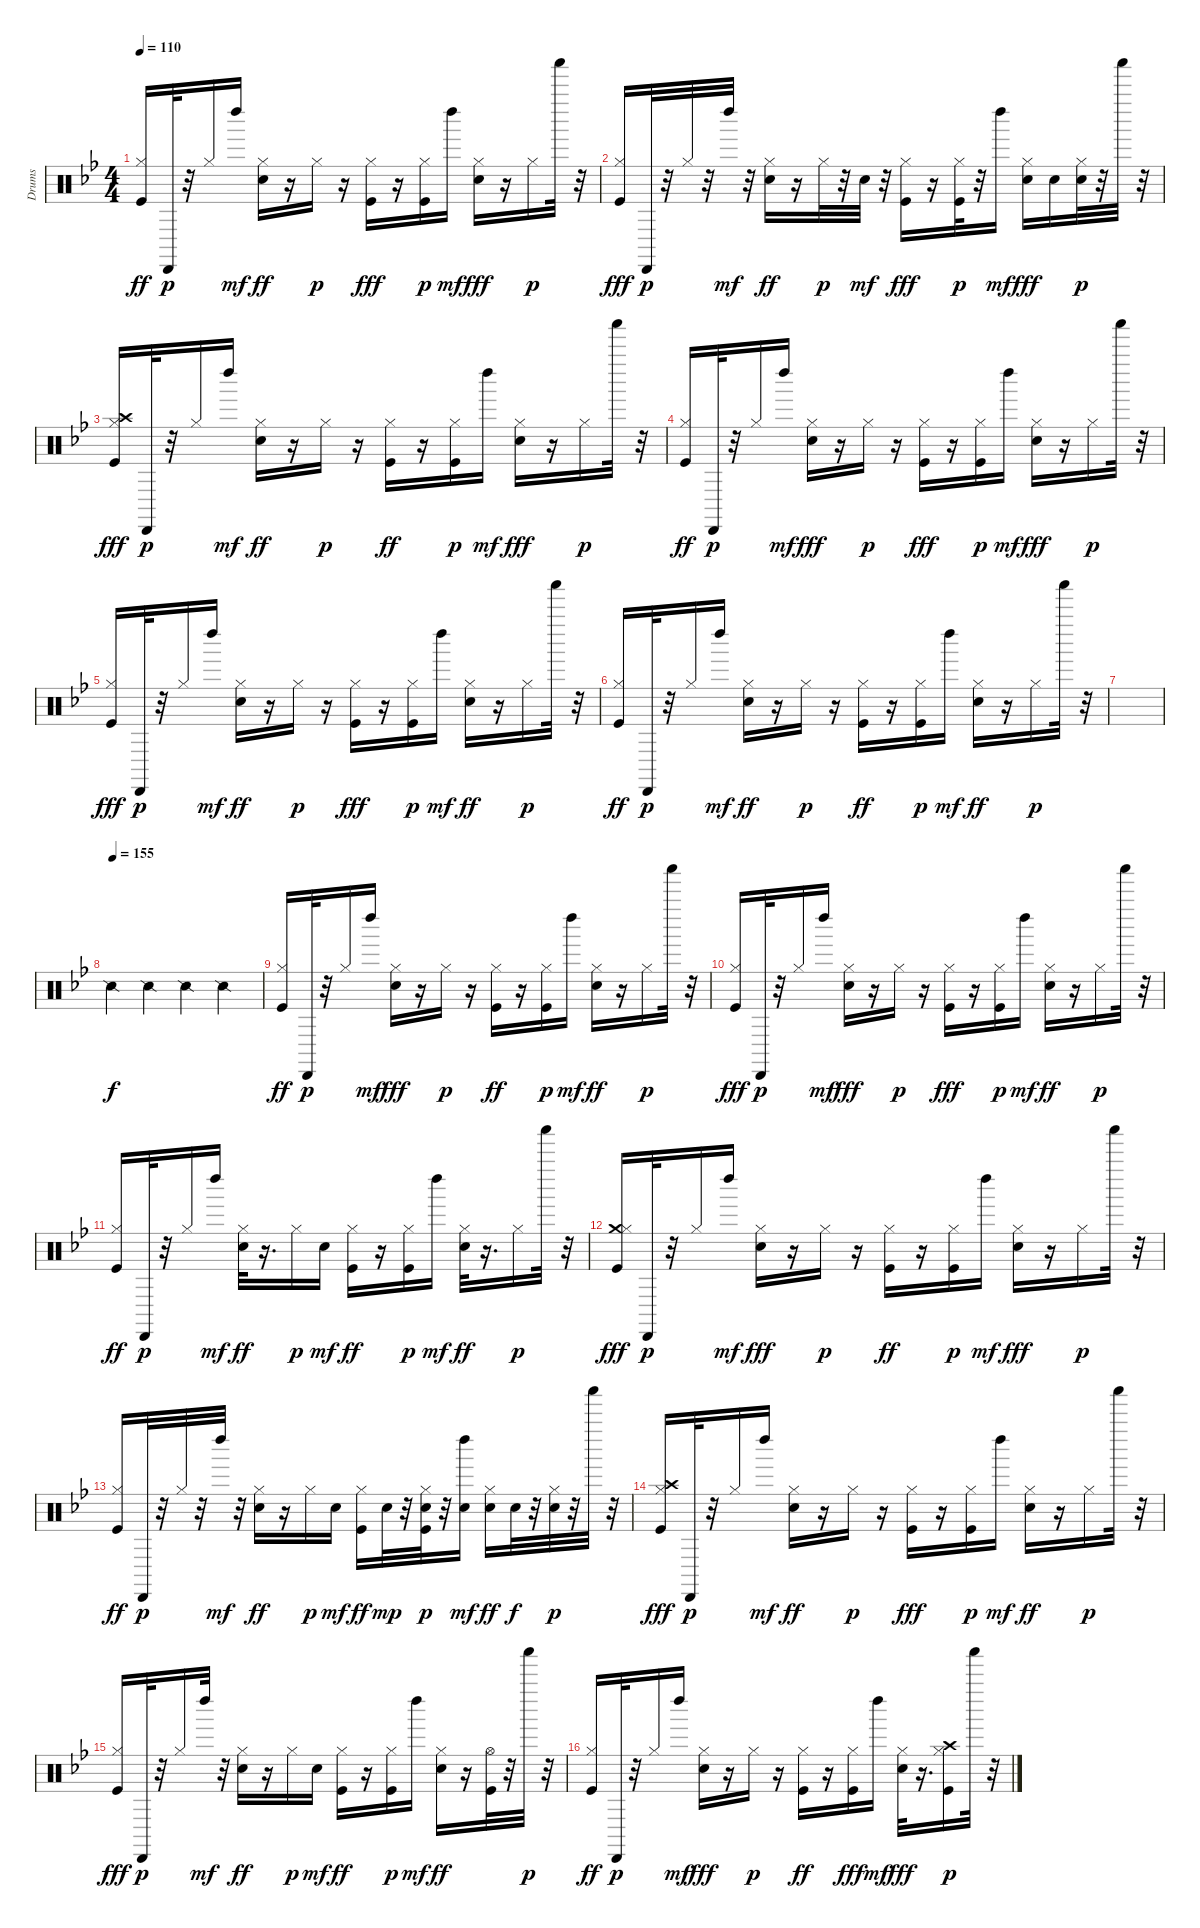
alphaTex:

\track ("Drums" "Drums") {instrument percussion}
\staff {score}
\articulation defaults
\ts (4 4)
\tempo 110
\clef neutral
\ks bb
("Kick (hit)" "Hi-Hat (closed)").16{dy ff} "Cabasa (hit)".32{dy p} r.32 "Hi-Hat (closed)".16 "Left Maraca (hit)".16{dy mf} ("Electric Snare (hit)" "Hi-Hat (closed)").16{dy ff} r.16 "Hi-Hat (closed)".16{dy p} r.16 ("Hi-Hat (closed)" "Kick (hit)").16{dy fff} r.16 ("Kick (hit)" "Hi-Hat (closed)").16{dy p} "Left Maraca (hit)".16{dy mf} ("Hi-Hat (closed)" "Electric Snare (hit)").16{dy fff} r.16 "Hi-Hat (closed)".16{dy p} "Shaker (hit)".32 r.32 |
("Hi-Hat (closed)" "Kick (hit)").16{dy fff} "Cabasa (hit)".32{dy p} r.32 "Hi-Hat (closed)".32 r.32 "Left Maraca (hit)".32{dy mf} r.32 ("Electric Snare (hit)" "Hi-Hat (closed)").16{dy ff} r.16 "Hi-Hat (closed)".32{dy p} r.32 "Electric Snare (hit)".32{dy mf} r.32 ("Hi-Hat (closed)" "Kick (hit)").16{dy fff} r.16 ("Kick (hit)" "Hi-Hat (closed)").32{dy p} r.32 "Left Maraca (hit)".16{dy mf} ("Hi-Hat (closed)" "Electric Snare (hit)").16{dy fff} "Electric Snare (hit)".16 ("Electric Snare (hit)" "Hi-Hat (closed)").32{dy p} r.32 "Shaker (hit)".32 r.32 |
("Crash high (hit)" "Hi-Hat (closed)" "Kick (hit)").16{dy fff} "Cabasa (hit)".32{dy p} r.32 "Hi-Hat (closed)".16 "Left Maraca (hit)".16{dy mf} ("Electric Snare (hit)" "Hi-Hat (closed)").16{dy ff} r.16 "Hi-Hat (closed)".16{dy p} r.16 ("Kick (hit)" "Hi-Hat (closed)").16{dy ff} r.16 ("Kick (hit)" "Hi-Hat (closed)").16{dy p} "Left Maraca (hit)".16{dy mf} ("Hi-Hat (closed)" "Electric Snare (hit)").16{dy fff} r.16 "Hi-Hat (closed)".16{dy p} "Shaker (hit)".32 r.32 |
("Kick (hit)" "Hi-Hat (closed)").16{dy ff} "Cabasa (hit)".32{dy p} r.32 "Hi-Hat (closed)".16 "Left Maraca (hit)".16{dy mf} ("Hi-Hat (closed)" "Electric Snare (hit)").16{dy fff} r.16 "Hi-Hat (closed)".16{dy p} r.16 ("Hi-Hat (closed)" "Kick (hit)").16{dy fff} r.16 ("Kick (hit)" "Hi-Hat (closed)").16{dy p} "Left Maraca (hit)".16{dy mf} ("Hi-Hat (closed)" "Electric Snare (hit)").16{dy fff} r.16 "Hi-Hat (closed)".16{dy p} "Shaker (hit)".32 r.32 |
("Hi-Hat (closed)" "Kick (hit)").16{dy fff} "Cabasa (hit)".32{dy p} r.32 "Hi-Hat (closed)".16 "Left Maraca (hit)".16{dy mf} ("Electric Snare (hit)" "Hi-Hat (closed)").16{dy ff} r.16 "Hi-Hat (closed)".16{dy p} r.16 ("Hi-Hat (closed)" "Kick (hit)").16{dy fff} r.16 ("Kick (hit)" "Hi-Hat (closed)").16{dy p} "Left Maraca (hit)".16{dy mf} ("Electric Snare (hit)" "Hi-Hat (closed)").16{dy ff} r.16 "Hi-Hat (closed)".16{dy p} "Shaker (hit)".32 r.32 |
("Kick (hit)" "Hi-Hat (closed)").16{dy ff} "Cabasa (hit)".32{dy p} r.32 "Hi-Hat (closed)".16 "Left Maraca (hit)".16{dy mf} ("Electric Snare (hit)" "Hi-Hat (closed)").16{dy ff} r.16 "Hi-Hat (closed)".16{dy p} r.16 ("Kick (hit)" "Hi-Hat (closed)").16{dy ff} r.16 ("Kick (hit)" "Hi-Hat (closed)").16{dy p} "Left Maraca (hit)".16{dy mf} ("Electric Snare (hit)" "Hi-Hat (closed)").16{dy ff} r.16 "Hi-Hat (closed)".16{dy p} "Shaker (hit)".32 r.32 |
|
\tempo (155)
"Snare (side stick) 2".4{dy f} "Snare (side stick) 2".4 "Snare (side stick) 2".4 "Snare (side stick) 2".4 |
("Kick (hit)" "Hi-Hat (closed)").16{dy ff} "Cabasa (hit)".32{dy p} r.32 "Hi-Hat (closed)".16 "Left Maraca (hit)".16{dy mf} ("Hi-Hat (closed)" "Electric Snare (hit)").16{dy fff} r.16 "Hi-Hat (closed)".16{dy p} r.16 ("Kick (hit)" "Hi-Hat (closed)").16{dy ff} r.16 ("Kick (hit)" "Hi-Hat (closed)").16{dy p} "Left Maraca (hit)".16{dy mf} ("Electric Snare (hit)" "Hi-Hat (closed)").16{dy ff} r.16 "Hi-Hat (closed)".16{dy p} "Shaker (hit)".32 r.32 |
("Hi-Hat (closed)" "Kick (hit)").16{dy fff} "Cabasa (hit)".32{dy p} r.32 "Hi-Hat (closed)".16 "Left Maraca (hit)".16{dy mf} ("Hi-Hat (closed)" "Electric Snare (hit)").16{dy fff} r.16 "Hi-Hat (closed)".16{dy p} r.16 ("Hi-Hat (closed)" "Kick (hit)").16{dy fff} r.16 ("Kick (hit)" "Hi-Hat (closed)").16{dy p} "Left Maraca (hit)".16{dy mf} ("Electric Snare (hit)" "Hi-Hat (closed)").16{dy ff} r.16 "Hi-Hat (closed)".16{dy p} "Shaker (hit)".32 r.32 |
("Kick (hit)" "Hi-Hat (closed)").16{dy ff} "Cabasa (hit)".32{dy p} r.32 "Hi-Hat (closed)".16 "Left Maraca (hit)".16{dy mf} ("Electric Snare (hit)" "Hi-Hat (closed)").32{dy ff} r.16{d} "Hi-Hat (closed)".16{dy p} "Electric Snare (hit)".16{dy mf} ("Kick (hit)" "Hi-Hat (closed)").16{dy ff} r.16 ("Kick (hit)" "Hi-Hat (closed)").16{dy p} "Left Maraca (hit)".16{dy mf} ("Electric Snare (hit)" "Hi-Hat (closed)").32{dy ff} r.16{d} "Hi-Hat (closed)".16{dy p} "Shaker (hit)".32 r.32 |
("Crash medium (hit)" "Hi-Hat (closed)" "Kick (hit)").16{dy fff} "Cabasa (hit)".32{dy p} r.32 "Hi-Hat (closed)".16 "Left Maraca (hit)".16{dy mf} ("Hi-Hat (closed)" "Electric Snare (hit)").16{dy fff} r.16 "Hi-Hat (closed)".16{dy p} r.16 ("Kick (hit)" "Hi-Hat (closed)").16{dy ff} r.16 ("Kick (hit)" "Hi-Hat (closed)").16{dy p} "Left Maraca (hit)".16{dy mf} ("Hi-Hat (closed)" "Electric Snare (hit)").16{dy fff} r.16 "Hi-Hat (closed)".16{dy p} "Shaker (hit)".32 r.32 |
("Kick (hit)" "Hi-Hat (closed)").16{dy ff} "Cabasa (hit)".32{dy p} r.32 "Hi-Hat (closed)".32 r.32 "Left Maraca (hit)".32{dy mf} r.32 ("Electric Snare (hit)" "Hi-Hat (closed)").16{dy ff} r.16 "Hi-Hat (closed)".16{dy p} "Electric Snare (hit)".16{dy mf} ("Kick (hit)" "Hi-Hat (closed)").16{dy ff} "Electric Snare (hit)".32{dy mp} r.32 ("Electric Snare (hit)" "Kick (hit)" "Hi-Hat (closed)").32{dy p} r.32 ("Electric Snare (hit)" "Left Maraca (hit)").16{dy mf} ("Electric Snare (hit)" "Hi-Hat (closed)").16{dy ff} "Electric Snare (hit)".32{dy f} r.32 ("Electric Snare (hit)" "Hi-Hat (closed)").32{dy p} r.32 "Shaker (hit)".32 r.32 |
("Crash high (hit)" "Hi-Hat (closed)" "Kick (hit)").16{dy fff} "Cabasa (hit)".32{dy p} r.32 "Hi-Hat (closed)".16 "Left Maraca (hit)".16{dy mf} ("Electric Snare (hit)" "Hi-Hat (closed)").16{dy ff} r.16 "Hi-Hat (closed)".16{dy p} r.16 ("Hi-Hat (closed)" "Kick (hit)").16{dy fff} r.16 ("Kick (hit)" "Hi-Hat (closed)").16{dy p} "Left Maraca (hit)".16{dy mf} ("Electric Snare (hit)" "Hi-Hat (closed)").16{dy ff} r.16 "Hi-Hat (closed)".16{dy p} "Shaker (hit)".32 r.32 |
("Hi-Hat (closed)" "Kick (hit)").16{dy fff} "Cabasa (hit)".32{dy p} r.32 "Hi-Hat (closed)".16 "Left Maraca (hit)".32{dy mf} r.32 ("Electric Snare (hit)" "Hi-Hat (closed)").16{dy ff} r.16 "Hi-Hat (closed)".16{dy p} "Electric Snare (hit)".16{dy mf} ("Kick (hit)" "Hi-Hat (closed)").16{dy ff} r.16 ("Kick (hit)" "Hi-Hat (closed)").16{dy p} "Left Maraca (hit)".16{dy mf} ("Electric Snare (hit)" "Hi-Hat (closed)").16{dy ff} r.16 ("Kick (hit)" "Hi-Hat (open)").32 r.32 "Shaker (hit)".32{dy p} r.32 |
("Kick (hit)" "Hi-Hat (closed)").16{dy ff} "Cabasa (hit)".32{dy p} r.32 "Hi-Hat (closed)".16 "Left Maraca (hit)".16{dy mf} ("Hi-Hat (closed)" "Electric Snare (hit)").16{dy fff} r.16 "Hi-Hat (closed)".16{dy p} r.16 ("Kick (hit)" "Hi-Hat (closed)").16{dy ff} r.16 ("Hi-Hat (closed)" "Kick (hit)").16{dy fff} "Left Maraca (hit)".16{dy mf} ("Hi-Hat (closed)" "Electric Snare (hit)").32{dy fff} r.16{d} ("Kick (hit)" "Crash high (hit)" "Hi-Hat (closed)").16{dy p} "Shaker (hit)".32 r.32
